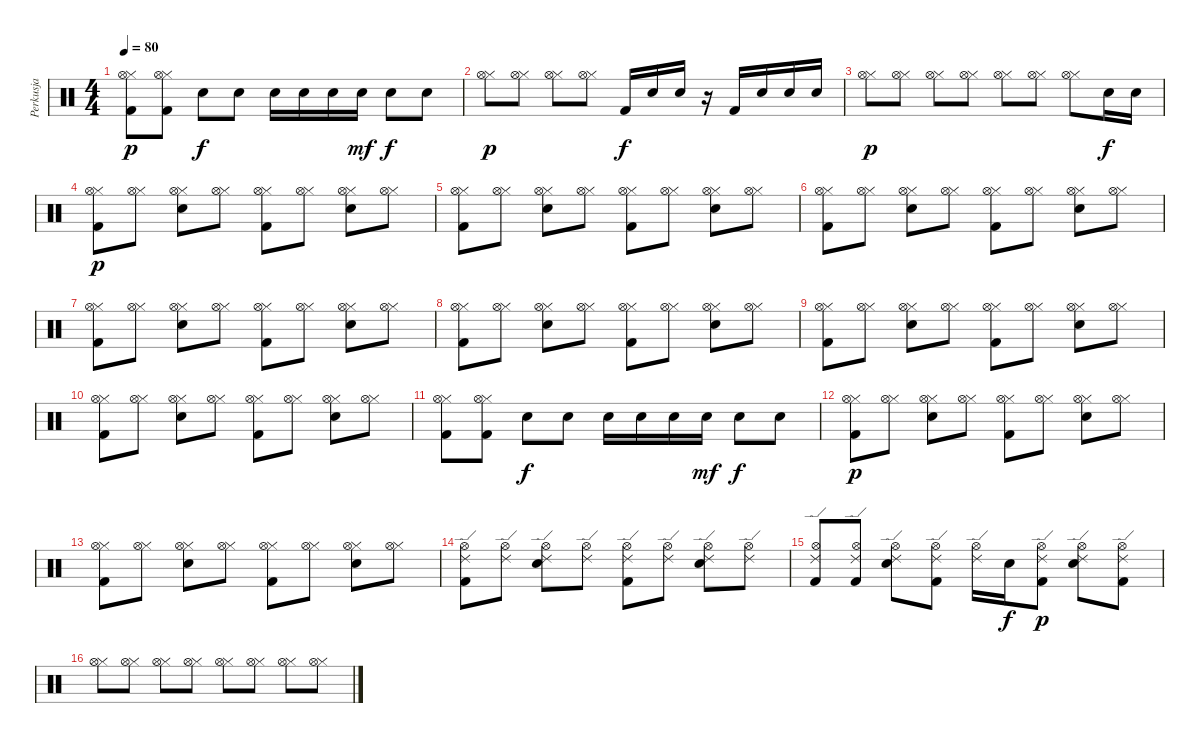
\track ("Perkusja" "Perkusja") {instrument percussion}
\staff {score}
\articulation defaults
\ts (4 4)
\tempo 80
\clef neutral
\ks c
("Kick (hit) 2" "Hi-Hat (closed)" "Hi-Hat (open)").8{dy p} ("Kick (hit) 2" "Hi-Hat (closed)" "Hi-Hat (open)").8 "Electric Snare (hit)".8{dy f} "Electric Snare (hit)".8 "Electric Snare (hit)".16 "Electric Snare (hit)".16 "Electric Snare (hit)".16 "Electric Snare (hit)".16{dy mf} "Electric Snare (hit)".8{dy f} "Electric Snare (hit)".8 |
("Hi-Hat (closed)" "Hi-Hat (open)").8{dy p} ("Hi-Hat (closed)" "Hi-Hat (open)").8 ("Hi-Hat (closed)" "Hi-Hat (open)").8 ("Hi-Hat (closed)" "Hi-Hat (open)").8 "Kick (hit) 2".16{dy f} "Electric Snare (hit)".16 "Electric Snare (hit)".16 r.16 "Kick (hit) 2".16 "Electric Snare (hit)".16 "Electric Snare (hit)".16 "Electric Snare (hit)".16 |
("Hi-Hat (closed)" "Hi-Hat (open)").8{dy p} ("Hi-Hat (closed)" "Hi-Hat (open)").8 ("Hi-Hat (closed)" "Hi-Hat (open)").8 ("Hi-Hat (closed)" "Hi-Hat (open)").8 ("Hi-Hat (closed)" "Hi-Hat (open)").8 ("Hi-Hat (closed)" "Hi-Hat (open)").8 ("Hi-Hat (closed)" "Hi-Hat (open)").8 "Electric Snare (hit)".16{dy f} "Electric Snare (hit)".16 |
("Kick (hit) 2" "Hi-Hat (closed)" "Hi-Hat (open)").8{dy p} ("Hi-Hat (closed)" "Hi-Hat (open)").8 ("Electric Snare (hit)" "Hi-Hat (closed)" "Hi-Hat (open)").8 ("Hi-Hat (closed)" "Hi-Hat (open)").8 ("Kick (hit) 2" "Hi-Hat (closed)" "Hi-Hat (open)").8 ("Hi-Hat (closed)" "Hi-Hat (open)").8 ("Electric Snare (hit)" "Hi-Hat (closed)" "Hi-Hat (open)").8 ("Hi-Hat (closed)" "Hi-Hat (open)").8 |
("Kick (hit) 2" "Hi-Hat (closed)" "Hi-Hat (open)").8 ("Hi-Hat (closed)" "Hi-Hat (open)").8 ("Electric Snare (hit)" "Hi-Hat (closed)" "Hi-Hat (open)").8 ("Hi-Hat (closed)" "Hi-Hat (open)").8 ("Kick (hit) 2" "Hi-Hat (closed)" "Hi-Hat (open)").8 ("Hi-Hat (closed)" "Hi-Hat (open)").8 ("Electric Snare (hit)" "Hi-Hat (closed)" "Hi-Hat (open)").8 ("Hi-Hat (closed)" "Hi-Hat (open)").8 |
("Kick (hit) 2" "Hi-Hat (closed)" "Hi-Hat (open)").8 ("Hi-Hat (closed)" "Hi-Hat (open)").8 ("Electric Snare (hit)" "Hi-Hat (closed)" "Hi-Hat (open)").8 ("Hi-Hat (closed)" "Hi-Hat (open)").8 ("Kick (hit) 2" "Hi-Hat (closed)" "Hi-Hat (open)").8 ("Hi-Hat (closed)" "Hi-Hat (open)").8 ("Electric Snare (hit)" "Hi-Hat (closed)" "Hi-Hat (open)").8 ("Hi-Hat (closed)" "Hi-Hat (open)").8 |
("Kick (hit) 2" "Hi-Hat (closed)" "Hi-Hat (open)").8 ("Hi-Hat (closed)" "Hi-Hat (open)").8 ("Electric Snare (hit)" "Hi-Hat (closed)" "Hi-Hat (open)").8 ("Hi-Hat (closed)" "Hi-Hat (open)").8 ("Kick (hit) 2" "Hi-Hat (closed)" "Hi-Hat (open)").8 ("Hi-Hat (closed)" "Hi-Hat (open)").8 ("Electric Snare (hit)" "Hi-Hat (closed)" "Hi-Hat (open)").8 ("Hi-Hat (closed)" "Hi-Hat (open)").8 |
("Kick (hit) 2" "Hi-Hat (closed)" "Hi-Hat (open)").8 ("Hi-Hat (closed)" "Hi-Hat (open)").8 ("Electric Snare (hit)" "Hi-Hat (closed)" "Hi-Hat (open)").8 ("Hi-Hat (closed)" "Hi-Hat (open)").8 ("Kick (hit) 2" "Hi-Hat (closed)" "Hi-Hat (open)").8 ("Hi-Hat (closed)" "Hi-Hat (open)").8 ("Electric Snare (hit)" "Hi-Hat (closed)" "Hi-Hat (open)").8 ("Hi-Hat (closed)" "Hi-Hat (open)").8 |
("Kick (hit) 2" "Hi-Hat (closed)" "Hi-Hat (open)").8 ("Hi-Hat (closed)" "Hi-Hat (open)").8 ("Electric Snare (hit)" "Hi-Hat (closed)" "Hi-Hat (open)").8 ("Hi-Hat (closed)" "Hi-Hat (open)").8 ("Kick (hit) 2" "Hi-Hat (closed)" "Hi-Hat (open)").8 ("Hi-Hat (closed)" "Hi-Hat (open)").8 ("Electric Snare (hit)" "Hi-Hat (closed)" "Hi-Hat (open)").8 ("Hi-Hat (closed)" "Hi-Hat (open)").8 |
("Kick (hit) 2" "Hi-Hat (closed)" "Hi-Hat (open)").8 ("Hi-Hat (closed)" "Hi-Hat (open)").8 ("Electric Snare (hit)" "Hi-Hat (closed)" "Hi-Hat (open)").8 ("Hi-Hat (closed)" "Hi-Hat (open)").8 ("Kick (hit) 2" "Hi-Hat (closed)" "Hi-Hat (open)").8 ("Hi-Hat (closed)" "Hi-Hat (open)").8 ("Electric Snare (hit)" "Hi-Hat (closed)" "Hi-Hat (open)").8 ("Hi-Hat (closed)" "Hi-Hat (open)").8 |
("Kick (hit) 2" "Hi-Hat (closed)" "Hi-Hat (open)").8 ("Kick (hit) 2" "Hi-Hat (closed)" "Hi-Hat (open)").8 "Electric Snare (hit)".8{dy f} "Electric Snare (hit)".8 "Electric Snare (hit)".16 "Electric Snare (hit)".16 "Electric Snare (hit)".16 "Electric Snare (hit)".16{dy mf} "Electric Snare (hit)".8{dy f} "Electric Snare (hit)".8 |
("Kick (hit) 2" "Hi-Hat (closed)" "Hi-Hat (open)").8{dy p} ("Hi-Hat (closed)" "Hi-Hat (open)").8 ("Electric Snare (hit)" "Hi-Hat (closed)" "Hi-Hat (open)").8 ("Hi-Hat (closed)" "Hi-Hat (open)").8 ("Kick (hit) 2" "Hi-Hat (closed)" "Hi-Hat (open)").8 ("Hi-Hat (closed)" "Hi-Hat (open)").8 ("Electric Snare (hit)" "Hi-Hat (closed)" "Hi-Hat (open)").8 ("Hi-Hat (closed)" "Hi-Hat (open)").8 |
("Kick (hit) 2" "Hi-Hat (closed)" "Hi-Hat (open)").8 ("Hi-Hat (closed)" "Hi-Hat (open)").8 ("Electric Snare (hit)" "Hi-Hat (closed)" "Hi-Hat (open)").8 ("Hi-Hat (closed)" "Hi-Hat (open)").8 ("Kick (hit) 2" "Hi-Hat (closed)" "Hi-Hat (open)").8 ("Hi-Hat (closed)" "Hi-Hat (open)").8 ("Electric Snare (hit)" "Hi-Hat (closed)" "Hi-Hat (open)").8 ("Hi-Hat (closed)" "Hi-Hat (open)").8 |
("Kick (hit) 2" "Ride (edge) 2" "Hi-Hat (open)").8 ("Ride (edge) 2" "Hi-Hat (open)").8 ("Electric Snare (hit)" "Ride (edge) 2" "Hi-Hat (open)").8 ("Ride (edge) 2" "Hi-Hat (open)").8 ("Kick (hit) 2" "Ride (edge) 2" "Hi-Hat (open)").8 ("Ride (edge) 2" "Hi-Hat (open)").8 ("Electric Snare (hit)" "Ride (edge) 2" "Hi-Hat (open)").8 ("Ride (edge) 2" "Hi-Hat (open)").8 |
("Kick (hit) 2" "Ride (edge) 2" "Hi-Hat (open)").8 ("Kick (hit) 2" "Ride (edge) 2" "Hi-Hat (open)").8 ("Electric Snare (hit)" "Ride (edge) 2" "Hi-Hat (open)").8 ("Kick (hit) 2" "Ride (edge) 2" "Hi-Hat (open)").8 ("Ride (edge) 2" "Hi-Hat (open)").16 "Electric Snare (hit)".16{dy f} ("Kick (hit) 2" "Ride (edge) 2" "Hi-Hat (open)").8{dy p} ("Electric Snare (hit)" "Ride (edge) 2" "Hi-Hat (open)").8 ("Kick (hit) 2" "Ride (edge) 2" "Hi-Hat (open)").8 |
("Hi-Hat (closed)" "Hi-Hat (open)").8 ("Hi-Hat (closed)" "Hi-Hat (open)").8 ("Hi-Hat (closed)" "Hi-Hat (open)").8 ("Hi-Hat (closed)" "Hi-Hat (open)").8 ("Hi-Hat (closed)" "Hi-Hat (open)").8 ("Hi-Hat (closed)" "Hi-Hat (open)").8 ("Hi-Hat (closed)" "Hi-Hat (open)").8 ("Hi-Hat (closed)" "Hi-Hat (open)").8
